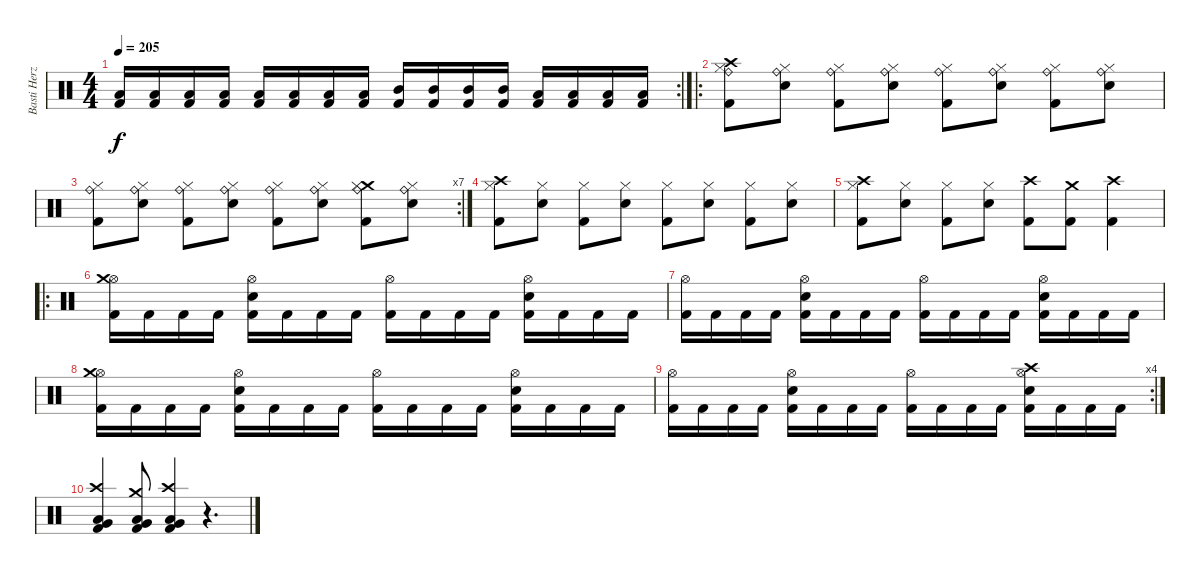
\track ("Basti Herzog" "Basti Herz") {instrument percussion}
\staff {score}
\articulation defaults
\rc 2
\ts (4 4)
\tempo 205
\clef neutral
\ks c
("Low Tom (hit)" "Kick (hit) 2").16{dy f} ("Low Tom (hit)" "Kick (hit) 2").16 ("Low Tom (hit)" "Kick (hit) 2").16 ("Low Tom (hit)" "Kick (hit) 2").16 ("Low Floor Tom (hit)" "Kick (hit) 2").16 ("Low Floor Tom (hit)" "Kick (hit) 2").16 ("Low Floor Tom (hit)" "Kick (hit) 2").16 ("Low Floor Tom (hit)" "Kick (hit) 2").16 ("Mid Tom (hit)" "Kick (hit) 2").16 ("Mid Tom (hit)" "Kick (hit) 2").16 ("Mid Tom (hit)" "Kick (hit) 2").16 ("Mid Tom (hit)" "Kick (hit) 2").16 ("Low Tom (hit)" "Kick (hit) 2").16 ("Low Tom (hit)" "Kick (hit) 2").16 ("Low Tom (hit)" "Kick (hit) 2").16 ("Low Tom (hit)" "Kick (hit) 2").16 |
\ro
("Ride (bell)" "Crash high (hit)" "Hi-Hat (closed)" "Kick (hit) 2").8 ("Ride (bell)" "Hi-Hat (closed)" "Snare (hit) 2").8 ("Ride (bell)" "Hi-Hat (closed)" "Kick (hit) 2").8 ("Ride (bell)" "Hi-Hat (closed)" "Snare (hit) 2").8 ("Ride (bell)" "Hi-Hat (closed)" "Kick (hit) 2").8 ("Ride (bell)" "Hi-Hat (closed)" "Snare (hit) 2").8 ("Ride (bell)" "Hi-Hat (closed)" "Kick (hit) 2").8 ("Ride (bell)" "Hi-Hat (closed)" "Snare (hit) 2").8 |
\rc 7
("Ride (bell)" "Hi-Hat (closed)" "Kick (hit) 2").8 ("Ride (bell)" "Hi-Hat (closed)" "Snare (hit) 2").8 ("Ride (bell)" "Hi-Hat (closed)" "Kick (hit) 2").8 ("Ride (bell)" "Hi-Hat (closed)" "Snare (hit) 2").8 ("Ride (bell)" "Hi-Hat (closed)" "Kick (hit) 2").8 ("Ride (bell)" "Hi-Hat (closed)" "Snare (hit) 2").8 ("Ride (bell)" "Crash medium (hit)" "Hi-Hat (closed)" "Kick (hit) 2").8 ("Ride (bell)" "Hi-Hat (closed)" "Snare (hit) 2").8 |
("Crash high (hit)" "Hi-Hat (closed)" "Kick (hit) 2").8 ("Hi-Hat (closed)" "Snare (hit) 2").8 ("Hi-Hat (closed)" "Kick (hit) 2").8 ("Hi-Hat (closed)" "Snare (hit) 2").8 ("Hi-Hat (closed)" "Kick (hit) 2").8 ("Hi-Hat (closed)" "Snare (hit) 2").8 ("Hi-Hat (closed)" "Kick (hit) 2").8 ("Hi-Hat (closed)" "Snare (hit) 2").8 |
("Crash high (hit)" "Hi-Hat (closed)" "Kick (hit) 2").8 ("Hi-Hat (closed)" "Snare (hit) 2").8 ("Hi-Hat (closed)" "Kick (hit) 2").8 ("Hi-Hat (closed)" "Snare (hit) 2").8 ("Crash high (hit)" "Kick (hit) 2").8 ("Crash medium (hit)" "Kick (hit) 2").8 ("Crash high (hit)" "Kick (hit) 2").4 |
\ro
("Hi-Hat (open)" "Crash medium (hit)" "Kick (hit) 2").16 "Kick (hit) 2".16 "Kick (hit) 2".16 "Kick (hit) 2".16 ("Hi-Hat (open)" "Snare (hit) 2" "Kick (hit) 2").16 "Kick (hit) 2".16 "Kick (hit) 2".16 "Kick (hit) 2".16 ("Hi-Hat (open)" "Kick (hit) 2").16 "Kick (hit) 2".16 "Kick (hit) 2".16 "Kick (hit) 2".16 ("Hi-Hat (open)" "Snare (hit) 2" "Kick (hit) 2").16 "Kick (hit) 2".16 "Kick (hit) 2".16 "Kick (hit) 2".16 |
("Hi-Hat (open)" "Kick (hit) 2").16 "Kick (hit) 2".16 "Kick (hit) 2".16 "Kick (hit) 2".16 ("Hi-Hat (open)" "Snare (hit) 2" "Kick (hit) 2").16 "Kick (hit) 2".16 "Kick (hit) 2".16 "Kick (hit) 2".16 ("Hi-Hat (open)" "Kick (hit) 2").16 "Kick (hit) 2".16 "Kick (hit) 2".16 "Kick (hit) 2".16 ("Hi-Hat (open)" "Snare (hit) 2" "Kick (hit) 2").16 "Kick (hit) 2".16 "Kick (hit) 2".16 "Kick (hit) 2".16 |
("Hi-Hat (open)" "Crash medium (hit)" "Kick (hit) 2").16 "Kick (hit) 2".16 "Kick (hit) 2".16 "Kick (hit) 2".16 ("Hi-Hat (open)" "Snare (hit) 2" "Kick (hit) 2").16 "Kick (hit) 2".16 "Kick (hit) 2".16 "Kick (hit) 2".16 ("Hi-Hat (open)" "Kick (hit) 2").16 "Kick (hit) 2".16 "Kick (hit) 2".16 "Kick (hit) 2".16 ("Hi-Hat (open)" "Snare (hit) 2" "Kick (hit) 2").16 "Kick (hit) 2".16 "Kick (hit) 2".16 "Kick (hit) 2".16 |
\rc 4
("Hi-Hat (open)" "Kick (hit) 2").16 "Kick (hit) 2".16 "Kick (hit) 2".16 "Kick (hit) 2".16 ("Hi-Hat (open)" "Snare (hit) 2" "Kick (hit) 2").16 "Kick (hit) 2".16 "Kick (hit) 2".16 "Kick (hit) 2".16 ("Hi-Hat (open)" "Kick (hit) 2").16 "Kick (hit) 2".16 "Kick (hit) 2".16 "Kick (hit) 2".16 ("Hi-Hat (open)" "Crash high (hit)" "Snare (hit) 2" "Kick (hit) 2").16 "Kick (hit) 2".16 "Kick (hit) 2".16 "Kick (hit) 2".16 |
("Very Low Tom (hit)" "Crash high (hit)" "Low Floor Tom (hit)" "Kick (hit) 2").4 ("Very Low Tom (hit)" "Crash medium (hit)" "Low Floor Tom (hit)" "Kick (hit) 2").8 ("Very Low Tom (hit)" "Crash high (hit)" "Low Floor Tom (hit)" "Kick (hit) 2").4 r.4{d}
